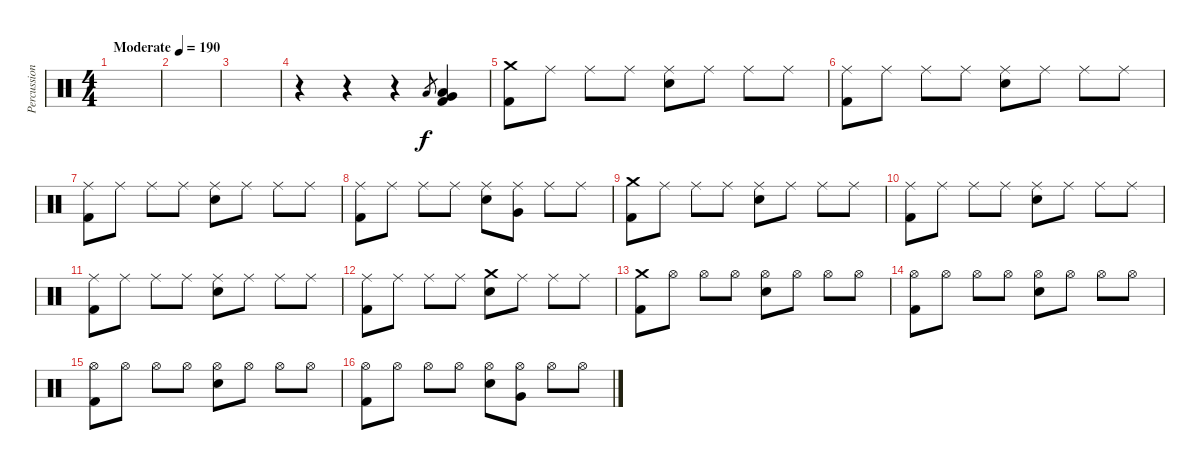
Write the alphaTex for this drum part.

\track ("Percussions" "Percussion") {instrument percussion}
\staff {score}
\articulation defaults
\ts (4 4)
\tempo (190 "Moderate")
\clef neutral
\ks c
|
|
|
r.4 r.4 r.4 "Low Floor Tom (hit)".8{gr} ("Very Low Tom (hit)" "Low Floor Tom (hit)" "Kick (hit) 2").4 |
("Crash medium (hit)" "Kick (hit) 2").8 "Ride (middle)".8 "Ride (middle)".8 "Ride (middle)".8 ("Ride (middle)" "Electric Snare (hit)").8 "Ride (middle)".8 "Ride (middle)".8 "Ride (middle)".8 |
("Ride (middle)" "Kick (hit) 2").8 "Ride (middle)".8 "Ride (middle)".8 "Ride (middle)".8 ("Ride (middle)" "Electric Snare (hit)").8 "Ride (middle)".8 "Ride (middle)".8 "Ride (middle)".8 |
("Ride (middle)" "Kick (hit) 2").8 "Ride (middle)".8 "Ride (middle)".8 "Ride (middle)".8 ("Ride (middle)" "Electric Snare (hit)").8 "Ride (middle)".8 "Ride (middle)".8 "Ride (middle)".8 |
("Ride (middle)" "Kick (hit) 2").8 "Ride (middle)".8 "Ride (middle)".8 "Ride (middle)".8 ("Ride (middle)" "Electric Snare (hit)").8 ("Ride (middle)" "Very Low Tom (hit)").8 "Ride (middle)".8 "Ride (middle)".8 |
("Crash medium (hit)" "Kick (hit) 2").8 "Ride (middle)".8 "Ride (middle)".8 "Ride (middle)".8 ("Ride (middle)" "Electric Snare (hit)").8 "Ride (middle)".8 "Ride (middle)".8 "Ride (middle)".8 |
("Ride (middle)" "Kick (hit) 2").8 "Ride (middle)".8 "Ride (middle)".8 "Ride (middle)".8 ("Ride (middle)" "Electric Snare (hit)").8 "Ride (middle)".8 "Ride (middle)".8 "Ride (middle)".8 |
("Ride (middle)" "Kick (hit) 2").8 "Ride (middle)".8 "Ride (middle)".8 "Ride (middle)".8 ("Ride (middle)" "Electric Snare (hit)").8 "Ride (middle)".8 "Ride (middle)".8 "Ride (middle)".8 |
("Ride (middle)" "Kick (hit) 2").8 "Ride (middle)".8 "Ride (middle)".8 "Ride (middle)".8 ("Crash medium (hit)" "Electric Snare (hit)").8 "Ride (middle)".8 "Ride (middle)".8 "Ride (middle)".8 |
("Crash medium (hit)" "Kick (hit) 2").8 "Hi-Hat (open)".8 "Hi-Hat (open)".8 "Hi-Hat (open)".8 ("Hi-Hat (open)" "Electric Snare (hit)").8 "Hi-Hat (open)".8 "Hi-Hat (open)".8 "Hi-Hat (open)".8 |
("Hi-Hat (open)" "Kick (hit) 2").8 "Hi-Hat (open)".8 "Hi-Hat (open)".8 "Hi-Hat (open)".8 ("Hi-Hat (open)" "Electric Snare (hit)").8 "Hi-Hat (open)".8 "Hi-Hat (open)".8 "Hi-Hat (open)".8 |
("Hi-Hat (open)" "Kick (hit) 2").8 "Hi-Hat (open)".8 "Hi-Hat (open)".8 "Hi-Hat (open)".8 ("Hi-Hat (open)" "Electric Snare (hit)").8 "Hi-Hat (open)".8 "Hi-Hat (open)".8 "Hi-Hat (open)".8 |
("Hi-Hat (open)" "Kick (hit) 2").8 "Hi-Hat (open)".8 "Hi-Hat (open)".8 "Hi-Hat (open)".8 ("Hi-Hat (open)" "Electric Snare (hit)").8 ("Hi-Hat (open)" "Very Low Tom (hit)").8 "Hi-Hat (open)".8 "Hi-Hat (open)".8
